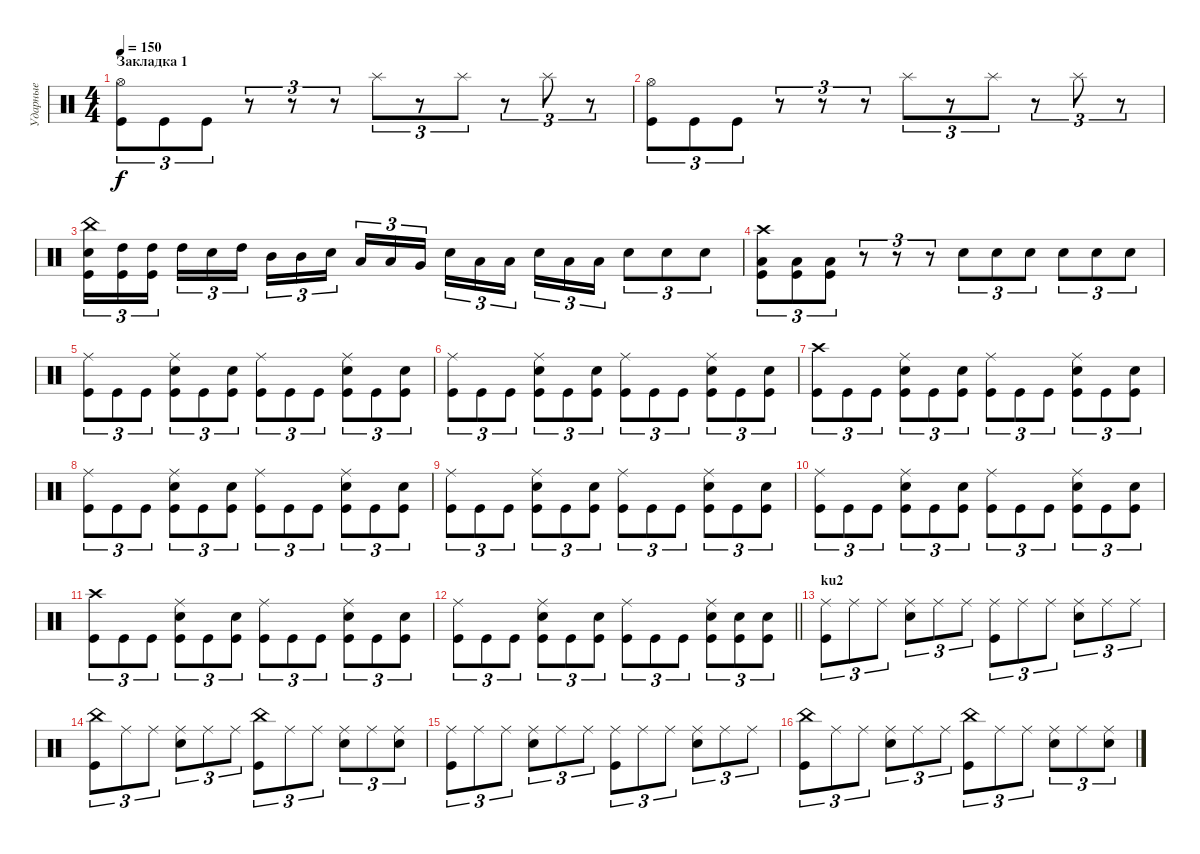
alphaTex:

\track ("Ударные" "Ударные") {instrument percussion}
\staff {score}
\articulation defaults
\ts (4 4)
\section ("" "Закладка 1")
\tempo 150
\clef neutral
\ks c
("Kick (hit)" "Hi-Hat (open)").8{tu (3 2) dy f} "Kick (hit)".8{tu (3 2)} "Kick (hit)".8{tu (3 2)} r.8{tu (3 2)} r.8{tu (3 2)} r.8{tu (3 2)} "Splash (hit)".8{tu (3 2)} r.8{tu (3 2)} "Splash (hit)".8{tu (3 2)} r.8{tu (3 2)} "Splash (hit)".8{tu (3 2)} r.8{tu (3 2)} |
("Kick (hit)" "Hi-Hat (open)").8{tu (3 2)} "Kick (hit)".8{tu (3 2)} "Kick (hit)".8{tu (3 2)} r.8{tu (3 2)} r.8{tu (3 2)} r.8{tu (3 2)} "Splash (hit)".8{tu (3 2)} r.8{tu (3 2)} "Splash (hit)".8{tu (3 2)} r.8{tu (3 2)} "Splash (hit)".8{tu (3 2)} r.8{tu (3 2)} |
("Kick (hit)" "Electric Snare (hit)" "China (hit)").16{tu (3 2)} ("Kick (hit)" "High Tom (hit)").16{tu (3 2)} ("Kick (hit)" "High Tom (hit)").16{tu (3 2) beam splitsecondary} "High Tom (hit)".16{tu (3 2)} "Electric Snare (hit)".16{tu (3 2)} "High Tom (hit)".16{tu (3 2)} "Mid Tom (hit)".16{tu (3 2)} "Mid Tom (hit)".16{tu (3 2)} "Electric Snare (hit)".16{tu (3 2) beam splitsecondary} "Low Tom (hit)".16{tu (3 2)} "Low Tom (hit)".16{tu (3 2)} "Very Low Tom (hit)".16{tu (3 2)} "Electric Snare (hit)".16{tu (3 2)} "Low Floor Tom (hit)".16{tu (3 2)} "Low Floor Tom (hit)".16{tu (3 2) beam splitsecondary} "Electric Snare (hit)".16{tu (3 2)} "Low Floor Tom (hit)".16{tu (3 2)} "Low Floor Tom (hit)".16{tu (3 2)} "Electric Snare (hit)".8{tu (3 2)} "Electric Snare (hit)".8{tu (3 2)} "Electric Snare (hit)".8{tu (3 2)} |
("Kick (hit)" "Low Floor Tom (hit)" "Crash high (hit)").8{tu (3 2)} ("Kick (hit)" "Low Floor Tom (hit)").8{tu (3 2)} ("Kick (hit)" "Low Floor Tom (hit)").8{tu (3 2)} r.8{tu (3 2)} r.8{tu (3 2)} r.8{tu (3 2)} "Electric Snare (hit)".8{tu (3 2)} "Electric Snare (hit)".8{tu (3 2)} "Electric Snare (hit)".8{tu (3 2)} "Electric Snare (hit)".8{tu (3 2)} "Electric Snare (hit)".8{tu (3 2)} "Electric Snare (hit)".8{tu (3 2)} |
("Kick (hit)" "Ride (middle)").8{tu (3 2)} "Kick (hit)".8{tu (3 2)} "Kick (hit)".8{tu (3 2)} ("Kick (hit)" "Electric Snare (hit)" "Ride (middle)").8{tu (3 2)} "Kick (hit)".8{tu (3 2)} ("Kick (hit)" "Electric Snare (hit)").8{tu (3 2)} ("Kick (hit)" "Ride (middle)").8{tu (3 2)} "Kick (hit)".8{tu (3 2)} "Kick (hit)".8{tu (3 2)} ("Kick (hit)" "Electric Snare (hit)" "Ride (middle)").8{tu (3 2)} "Kick (hit)".8{tu (3 2)} ("Kick (hit)" "Electric Snare (hit)").8{tu (3 2)} |
("Kick (hit)" "Ride (middle)").8{tu (3 2)} "Kick (hit)".8{tu (3 2)} "Kick (hit)".8{tu (3 2)} ("Kick (hit)" "Electric Snare (hit)" "Ride (middle)").8{tu (3 2)} "Kick (hit)".8{tu (3 2)} ("Kick (hit)" "Electric Snare (hit)").8{tu (3 2)} ("Kick (hit)" "Ride (middle)").8{tu (3 2)} "Kick (hit)".8{tu (3 2)} "Kick (hit)".8{tu (3 2)} ("Kick (hit)" "Electric Snare (hit)" "Ride (middle)").8{tu (3 2)} "Kick (hit)".8{tu (3 2)} ("Kick (hit)" "Electric Snare (hit)").8{tu (3 2)} |
("Kick (hit)" "Crash high (hit)").8{tu (3 2)} "Kick (hit)".8{tu (3 2)} "Kick (hit)".8{tu (3 2)} ("Kick (hit)" "Electric Snare (hit)" "Ride (middle)").8{tu (3 2)} "Kick (hit)".8{tu (3 2)} ("Kick (hit)" "Electric Snare (hit)").8{tu (3 2)} ("Kick (hit)" "Ride (middle)").8{tu (3 2)} "Kick (hit)".8{tu (3 2)} "Kick (hit)".8{tu (3 2)} ("Kick (hit)" "Electric Snare (hit)" "Ride (middle)").8{tu (3 2)} "Kick (hit)".8{tu (3 2)} ("Kick (hit)" "Electric Snare (hit)").8{tu (3 2)} |
("Kick (hit)" "Ride (middle)").8{tu (3 2)} "Kick (hit)".8{tu (3 2)} "Kick (hit)".8{tu (3 2)} ("Kick (hit)" "Electric Snare (hit)" "Ride (middle)").8{tu (3 2)} "Kick (hit)".8{tu (3 2)} ("Kick (hit)" "Electric Snare (hit)").8{tu (3 2)} ("Kick (hit)" "Ride (middle)").8{tu (3 2)} "Kick (hit)".8{tu (3 2)} "Kick (hit)".8{tu (3 2)} ("Kick (hit)" "Electric Snare (hit)" "Ride (middle)").8{tu (3 2)} "Kick (hit)".8{tu (3 2)} ("Kick (hit)" "Electric Snare (hit)").8{tu (3 2)} |
("Kick (hit)" "Ride (middle)").8{tu (3 2)} "Kick (hit)".8{tu (3 2)} "Kick (hit)".8{tu (3 2)} ("Kick (hit)" "Electric Snare (hit)" "Ride (middle)").8{tu (3 2)} "Kick (hit)".8{tu (3 2)} ("Kick (hit)" "Electric Snare (hit)").8{tu (3 2)} ("Kick (hit)" "Ride (middle)").8{tu (3 2)} "Kick (hit)".8{tu (3 2)} "Kick (hit)".8{tu (3 2)} ("Kick (hit)" "Electric Snare (hit)" "Ride (middle)").8{tu (3 2)} "Kick (hit)".8{tu (3 2)} ("Kick (hit)" "Electric Snare (hit)").8{tu (3 2)} |
("Kick (hit)" "Ride (middle)").8{tu (3 2)} "Kick (hit)".8{tu (3 2)} "Kick (hit)".8{tu (3 2)} ("Kick (hit)" "Electric Snare (hit)" "Ride (middle)").8{tu (3 2)} "Kick (hit)".8{tu (3 2)} ("Kick (hit)" "Electric Snare (hit)").8{tu (3 2)} ("Kick (hit)" "Ride (middle)").8{tu (3 2)} "Kick (hit)".8{tu (3 2)} "Kick (hit)".8{tu (3 2)} ("Kick (hit)" "Electric Snare (hit)" "Ride (middle)").8{tu (3 2)} "Kick (hit)".8{tu (3 2)} ("Kick (hit)" "Electric Snare (hit)").8{tu (3 2)} |
("Kick (hit)" "Crash high (hit)").8{tu (3 2)} "Kick (hit)".8{tu (3 2)} "Kick (hit)".8{tu (3 2)} ("Kick (hit)" "Electric Snare (hit)" "Ride (middle)").8{tu (3 2)} "Kick (hit)".8{tu (3 2)} ("Kick (hit)" "Electric Snare (hit)").8{tu (3 2)} ("Kick (hit)" "Ride (middle)").8{tu (3 2)} "Kick (hit)".8{tu (3 2)} "Kick (hit)".8{tu (3 2)} ("Kick (hit)" "Electric Snare (hit)" "Ride (middle)").8{tu (3 2)} "Kick (hit)".8{tu (3 2)} ("Kick (hit)" "Electric Snare (hit)").8{tu (3 2)} |
\barLineRight lightlight
("Kick (hit)" "Ride (middle)").8{tu (3 2)} "Kick (hit)".8{tu (3 2)} "Kick (hit)".8{tu (3 2)} ("Kick (hit)" "Electric Snare (hit)" "Ride (middle)").8{tu (3 2)} "Kick (hit)".8{tu (3 2)} ("Kick (hit)" "Electric Snare (hit)").8{tu (3 2)} ("Kick (hit)" "Ride (middle)").8{tu (3 2)} "Kick (hit)".8{tu (3 2)} "Kick (hit)".8{tu (3 2)} ("Kick (hit)" "Electric Snare (hit)" "Ride (middle)").8{tu (3 2)} ("Kick (hit)" "Electric Snare (hit)").8{tu (3 2)} ("Kick (hit)" "Electric Snare (hit)").8{tu (3 2)} |
\section ("" "ku2")
("Ride (middle)" "Kick (hit)").8{tu (3 2)} "Ride (middle)".8{tu (3 2)} "Ride (middle)".8{tu (3 2)} ("Ride (middle)" "Electric Snare (hit)").8{tu (3 2)} "Ride (middle)".8{tu (3 2)} "Ride (middle)".8{tu (3 2)} ("Ride (middle)" "Kick (hit)").8{tu (3 2)} "Ride (middle)".8{tu (3 2)} "Ride (middle)".8{tu (3 2)} ("Ride (middle)" "Electric Snare (hit)").8{tu (3 2)} "Ride (middle)".8{tu (3 2)} "Ride (middle)".8{tu (3 2)} |
("China (hit)" "Kick (hit)").8{tu (3 2)} "Ride (middle)".8{tu (3 2)} "Ride (middle)".8{tu (3 2)} ("Ride (middle)" "Electric Snare (hit)").8{tu (3 2)} "Ride (middle)".8{tu (3 2)} "Ride (middle)".8{tu (3 2)} ("China (hit)" "Kick (hit)").8{tu (3 2)} "Ride (middle)".8{tu (3 2)} "Ride (middle)".8{tu (3 2)} ("Ride (middle)" "Electric Snare (hit)").8{tu (3 2)} "Ride (middle)".8{tu (3 2)} ("Ride (middle)" "Electric Snare (hit)").8{tu (3 2)} |
("Ride (middle)" "Kick (hit)").8{tu (3 2)} "Ride (middle)".8{tu (3 2)} "Ride (middle)".8{tu (3 2)} ("Ride (middle)" "Electric Snare (hit)").8{tu (3 2)} "Ride (middle)".8{tu (3 2)} "Ride (middle)".8{tu (3 2)} ("Ride (middle)" "Kick (hit)").8{tu (3 2)} "Ride (middle)".8{tu (3 2)} "Ride (middle)".8{tu (3 2)} ("Ride (middle)" "Electric Snare (hit)").8{tu (3 2)} "Ride (middle)".8{tu (3 2)} "Ride (middle)".8{tu (3 2)} |
("China (hit)" "Kick (hit)").8{tu (3 2)} "Ride (middle)".8{tu (3 2)} "Ride (middle)".8{tu (3 2)} ("Ride (middle)" "Electric Snare (hit)").8{tu (3 2)} "Ride (middle)".8{tu (3 2)} "Ride (middle)".8{tu (3 2)} ("China (hit)" "Kick (hit)").8{tu (3 2)} "Ride (middle)".8{tu (3 2)} "Ride (middle)".8{tu (3 2)} ("Ride (middle)" "Electric Snare (hit)").8{tu (3 2)} "Ride (middle)".8{tu (3 2)} ("Ride (middle)" "Electric Snare (hit)").8{tu (3 2)}
